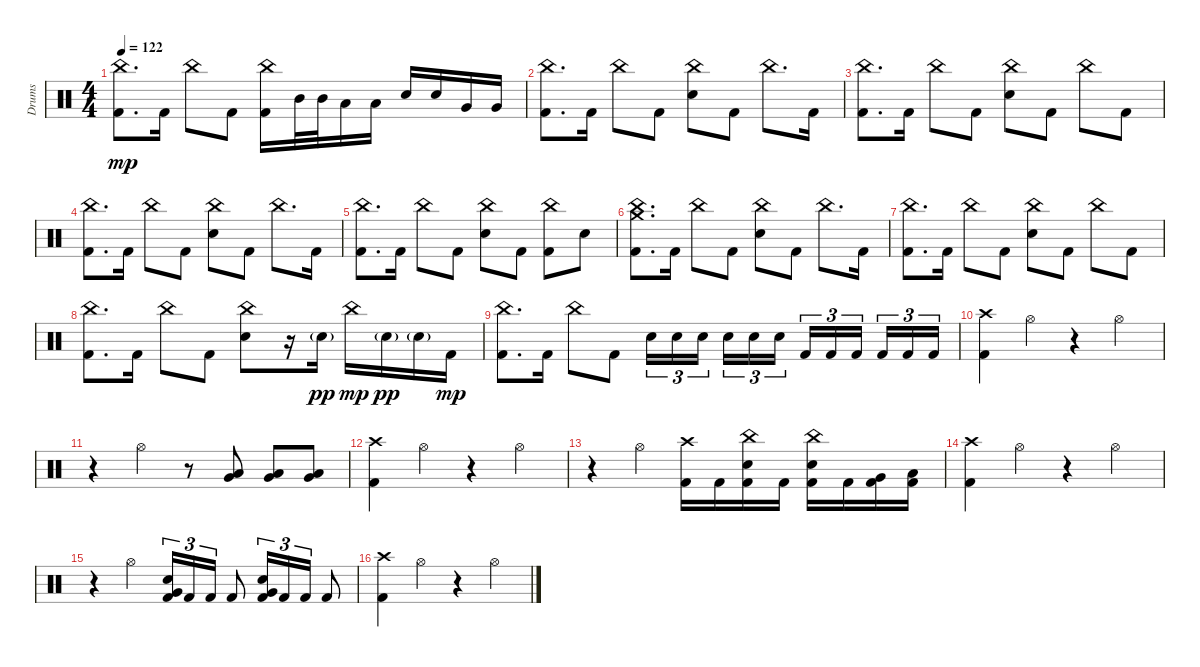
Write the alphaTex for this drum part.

\track ("Drums" "Drums") {instrument percussion}
\staff {score}
\articulation defaults
\ts (4 4)
\tempo 122
\clef neutral
\ks c
("China (hit)" "Kick (hit) 2").8{d dy mp} "Kick (hit) 2".16 "China (hit)".8 "Kick (hit) 2".8 ("China (hit)" "Kick (hit) 2").16 "Mid Tom (hit)".32 "Mid Tom (hit)".32 "Low Tom (hit)".16 "Low Tom (hit)".16 "Electric Snare (hit)".16 "Electric Snare (hit)".16 "Very Low Tom (hit)".16 "Very Low Tom (hit)".16 |
("China (hit)" "Kick (hit) 2").8{d} "Kick (hit) 2".16 "China (hit)".8 "Kick (hit) 2".8 ("China (hit)" "Electric Snare (hit)").8 "Kick (hit) 2".8 "China (hit)".8{d} "Kick (hit) 2".16 |
("China (hit)" "Kick (hit) 2").8{d} "Kick (hit) 2".16 "China (hit)".8 "Kick (hit) 2".8 ("China (hit)" "Electric Snare (hit)").8 "Kick (hit) 2".8 "China (hit)".8 "Kick (hit) 2".8 |
("China (hit)" "Kick (hit) 2").8{d} "Kick (hit) 2".16 "China (hit)".8 "Kick (hit) 2".8 ("China (hit)" "Electric Snare (hit)").8 "Kick (hit) 2".8 "China (hit)".8{d} "Kick (hit) 2".16 |
("China (hit)" "Kick (hit) 2").8{d} "Kick (hit) 2".16 "China (hit)".8 "Kick (hit) 2".8 ("China (hit)" "Electric Snare (hit)").8 "Kick (hit) 2".8 ("China (hit)" "Kick (hit) 2").8 "Electric Snare (hit)".8 |
("China (hit)" "Crash medium (hit)" "Kick (hit) 2").8{d} "Kick (hit) 2".16 "China (hit)".8 "Kick (hit) 2".8 ("China (hit)" "Electric Snare (hit)").8 "Kick (hit) 2".8 "China (hit)".8{d} "Kick (hit) 2".16 |
("China (hit)" "Kick (hit) 2").8{d} "Kick (hit) 2".16 "China (hit)".8 "Kick (hit) 2".8 ("China (hit)" "Electric Snare (hit)").8 "Kick (hit) 2".8 "China (hit)".8 "Kick (hit) 2".8 |
("China (hit)" "Kick (hit) 2").8{d} "Kick (hit) 2".16 "China (hit)".8 "Kick (hit) 2".8 ("China (hit)" "Electric Snare (hit)").8 r.16 "Electric Snare (hit)"{g}.16{dy pp} "China (hit)".16{dy mp} "Electric Snare (hit)"{g}.16{dy pp} "Electric Snare (hit)"{g}.16 "Kick (hit) 2".16{dy mp} |
("China (hit)" "Kick (hit) 2").8{d} "Kick (hit) 2".16 "China (hit)".8 "Kick (hit) 2".8 "Electric Snare (hit)".16{tu (3 2)} "Electric Snare (hit)".16{tu (3 2)} "Electric Snare (hit)".16{tu (3 2) beam splitsecondary} "Electric Snare (hit)".16{tu (3 2)} "Electric Snare (hit)".16{tu (3 2)} "Electric Snare (hit)".16{tu (3 2)} "Kick (hit) 2".16{tu (3 2)} "Kick (hit) 2".16{tu (3 2)} "Kick (hit) 2".16{tu (3 2) beam splitsecondary} "Kick (hit) 2".16{tu (3 2)} "Kick (hit) 2".16{tu (3 2)} "Kick (hit) 2".16{tu (3 2)} |
("Crash high (hit)" "Kick (hit) 2").4 "Hi-Hat (open)".4 r.4 "Hi-Hat (open)".4 |
r.4 "Hi-Hat (open)".4 r.8 ("Low Floor Tom (hit)" "Very Low Tom (hit)").8 ("Low Floor Tom (hit)" "Very Low Tom (hit)").8 ("Low Floor Tom (hit)" "Very Low Tom (hit)").8 |
("Crash high (hit)" "Kick (hit) 2").4 "Hi-Hat (open)".4 r.4 "Hi-Hat (open)".4 |
r.4 "Hi-Hat (open)".4 ("Crash high (hit)" "Kick (hit) 2").16 "Kick (hit) 2".16 ("China (hit)" "Electric Snare (hit)" "Kick (hit) 2").16 "Kick (hit) 2".16 ("China (hit)" "Electric Snare (hit)" "Kick (hit) 2").16 "Kick (hit) 2".16 ("Very Low Tom (hit)" "Kick (hit) 2").16 ("Low Floor Tom (hit)" "Kick (hit) 2").16 |
("Crash high (hit)" "Kick (hit) 2").4 "Hi-Hat (open)".4 r.4 "Hi-Hat (open)".4 |
r.4 "Hi-Hat (open)".4 ("Electric Snare (hit)" "Very Low Tom (hit)" "Kick (hit) 2").16{tu (3 2)} "Kick (hit) 2".16{tu (3 2)} "Kick (hit) 2".16{tu (3 2)} "Kick (hit) 2".8 ("Electric Snare (hit)" "Very Low Tom (hit)" "Kick (hit) 2").16{tu (3 2)} "Kick (hit) 2".16{tu (3 2)} "Kick (hit) 2".16{tu (3 2)} "Kick (hit) 2".8 |
("Crash high (hit)" "Kick (hit) 2").4 "Hi-Hat (open)".4 r.4 "Hi-Hat (open)".4
